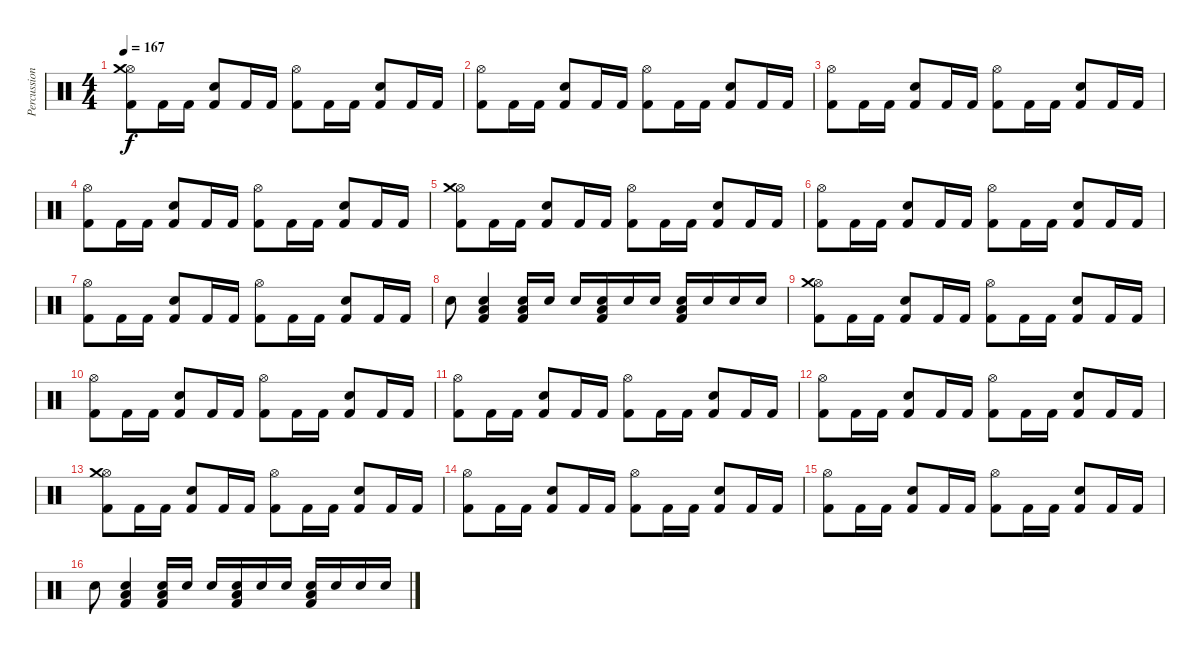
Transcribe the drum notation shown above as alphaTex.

\track ("Percussion" "Percussion") {instrument percussion}
\staff {score}
\articulation defaults
\ts (4 4)
\tempo 167
\clef neutral
\ks c
("Hi-Hat (open)" "Crash medium (hit)" "Kick (hit) 2").8{dy f} "Kick (hit) 2".16 "Kick (hit) 2".16 ("Snare (hit) 2" "Kick (hit) 2").8 "Kick (hit) 2".16 "Kick (hit) 2".16 ("Hi-Hat (open)" "Kick (hit) 2").8 "Kick (hit) 2".16 "Kick (hit) 2".16 ("Snare (hit) 2" "Kick (hit) 2").8 "Kick (hit) 2".16 "Kick (hit) 2".16 |
("Hi-Hat (open)" "Kick (hit) 2").8 "Kick (hit) 2".16 "Kick (hit) 2".16 ("Snare (hit) 2" "Kick (hit) 2").8 "Kick (hit) 2".16 "Kick (hit) 2".16 ("Hi-Hat (open)" "Kick (hit) 2").8 "Kick (hit) 2".16 "Kick (hit) 2".16 ("Snare (hit) 2" "Kick (hit) 2").8 "Kick (hit) 2".16 "Kick (hit) 2".16 |
("Hi-Hat (open)" "Kick (hit) 2").8 "Kick (hit) 2".16 "Kick (hit) 2".16 ("Snare (hit) 2" "Kick (hit) 2").8 "Kick (hit) 2".16 "Kick (hit) 2".16 ("Hi-Hat (open)" "Kick (hit) 2").8 "Kick (hit) 2".16 "Kick (hit) 2".16 ("Snare (hit) 2" "Kick (hit) 2").8 "Kick (hit) 2".16 "Kick (hit) 2".16 |
("Hi-Hat (open)" "Kick (hit) 2").8 "Kick (hit) 2".16 "Kick (hit) 2".16 ("Snare (hit) 2" "Kick (hit) 2").8 "Kick (hit) 2".16 "Kick (hit) 2".16 ("Hi-Hat (open)" "Kick (hit) 2").8 "Kick (hit) 2".16 "Kick (hit) 2".16 ("Snare (hit) 2" "Kick (hit) 2").8 "Kick (hit) 2".16 "Kick (hit) 2".16 |
("Hi-Hat (open)" "Crash medium (hit)" "Kick (hit) 2").8 "Kick (hit) 2".16 "Kick (hit) 2".16 ("Snare (hit) 2" "Kick (hit) 2").8 "Kick (hit) 2".16 "Kick (hit) 2".16 ("Hi-Hat (open)" "Kick (hit) 2").8 "Kick (hit) 2".16 "Kick (hit) 2".16 ("Snare (hit) 2" "Kick (hit) 2").8 "Kick (hit) 2".16 "Kick (hit) 2".16 |
("Hi-Hat (open)" "Kick (hit) 2").8 "Kick (hit) 2".16 "Kick (hit) 2".16 ("Snare (hit) 2" "Kick (hit) 2").8 "Kick (hit) 2".16 "Kick (hit) 2".16 ("Hi-Hat (open)" "Kick (hit) 2").8 "Kick (hit) 2".16 "Kick (hit) 2".16 ("Snare (hit) 2" "Kick (hit) 2").8 "Kick (hit) 2".16 "Kick (hit) 2".16 |
("Hi-Hat (open)" "Kick (hit) 2").8 "Kick (hit) 2".16 "Kick (hit) 2".16 ("Snare (hit) 2" "Kick (hit) 2").8 "Kick (hit) 2".16 "Kick (hit) 2".16 ("Hi-Hat (open)" "Kick (hit) 2").8 "Kick (hit) 2".16 "Kick (hit) 2".16 ("Snare (hit) 2" "Kick (hit) 2").8 "Kick (hit) 2".16 "Kick (hit) 2".16 |
"Snare (hit) 2".8 ("Snare (hit) 2" "Low Tom (hit)" "Kick (hit) 2").4 ("Snare (hit) 2" "Low Tom (hit)" "Kick (hit) 2").16 "Snare (hit) 2".16 "Snare (hit) 2".16 ("Snare (hit) 2" "Low Tom (hit)" "Kick (hit) 2").16 "Snare (hit) 2".16 "Snare (hit) 2".16 ("Snare (hit) 2" "Low Tom (hit)" "Kick (hit) 2").16 "Snare (hit) 2".16 "Snare (hit) 2".16 "Snare (hit) 2".16 |
("Hi-Hat (open)" "Crash medium (hit)" "Kick (hit) 2").8 "Kick (hit) 2".16 "Kick (hit) 2".16 ("Snare (hit) 2" "Kick (hit) 2").8 "Kick (hit) 2".16 "Kick (hit) 2".16 ("Hi-Hat (open)" "Kick (hit) 2").8 "Kick (hit) 2".16 "Kick (hit) 2".16 ("Snare (hit) 2" "Kick (hit) 2").8 "Kick (hit) 2".16 "Kick (hit) 2".16 |
("Hi-Hat (open)" "Kick (hit) 2").8 "Kick (hit) 2".16 "Kick (hit) 2".16 ("Snare (hit) 2" "Kick (hit) 2").8 "Kick (hit) 2".16 "Kick (hit) 2".16 ("Hi-Hat (open)" "Kick (hit) 2").8 "Kick (hit) 2".16 "Kick (hit) 2".16 ("Snare (hit) 2" "Kick (hit) 2").8 "Kick (hit) 2".16 "Kick (hit) 2".16 |
("Hi-Hat (open)" "Kick (hit) 2").8 "Kick (hit) 2".16 "Kick (hit) 2".16 ("Snare (hit) 2" "Kick (hit) 2").8 "Kick (hit) 2".16 "Kick (hit) 2".16 ("Hi-Hat (open)" "Kick (hit) 2").8 "Kick (hit) 2".16 "Kick (hit) 2".16 ("Snare (hit) 2" "Kick (hit) 2").8 "Kick (hit) 2".16 "Kick (hit) 2".16 |
("Hi-Hat (open)" "Kick (hit) 2").8 "Kick (hit) 2".16 "Kick (hit) 2".16 ("Snare (hit) 2" "Kick (hit) 2").8 "Kick (hit) 2".16 "Kick (hit) 2".16 ("Hi-Hat (open)" "Kick (hit) 2").8 "Kick (hit) 2".16 "Kick (hit) 2".16 ("Snare (hit) 2" "Kick (hit) 2").8 "Kick (hit) 2".16 "Kick (hit) 2".16 |
("Hi-Hat (open)" "Crash medium (hit)" "Kick (hit) 2").8 "Kick (hit) 2".16 "Kick (hit) 2".16 ("Snare (hit) 2" "Kick (hit) 2").8 "Kick (hit) 2".16 "Kick (hit) 2".16 ("Hi-Hat (open)" "Kick (hit) 2").8 "Kick (hit) 2".16 "Kick (hit) 2".16 ("Snare (hit) 2" "Kick (hit) 2").8 "Kick (hit) 2".16 "Kick (hit) 2".16 |
("Hi-Hat (open)" "Kick (hit) 2").8 "Kick (hit) 2".16 "Kick (hit) 2".16 ("Snare (hit) 2" "Kick (hit) 2").8 "Kick (hit) 2".16 "Kick (hit) 2".16 ("Hi-Hat (open)" "Kick (hit) 2").8 "Kick (hit) 2".16 "Kick (hit) 2".16 ("Snare (hit) 2" "Kick (hit) 2").8 "Kick (hit) 2".16 "Kick (hit) 2".16 |
("Hi-Hat (open)" "Kick (hit) 2").8 "Kick (hit) 2".16 "Kick (hit) 2".16 ("Snare (hit) 2" "Kick (hit) 2").8 "Kick (hit) 2".16 "Kick (hit) 2".16 ("Hi-Hat (open)" "Kick (hit) 2").8 "Kick (hit) 2".16 "Kick (hit) 2".16 ("Snare (hit) 2" "Kick (hit) 2").8 "Kick (hit) 2".16 "Kick (hit) 2".16 |
"Snare (hit) 2".8 ("Snare (hit) 2" "Low Tom (hit)" "Kick (hit) 2").4 ("Snare (hit) 2" "Low Tom (hit)" "Kick (hit) 2").16 "Snare (hit) 2".16 "Snare (hit) 2".16 ("Snare (hit) 2" "Low Tom (hit)" "Kick (hit) 2").16 "Snare (hit) 2".16 "Snare (hit) 2".16 ("Snare (hit) 2" "Low Tom (hit)" "Kick (hit) 2").16 "Snare (hit) 2".16 "Snare (hit) 2".16 "Snare (hit) 2".16
